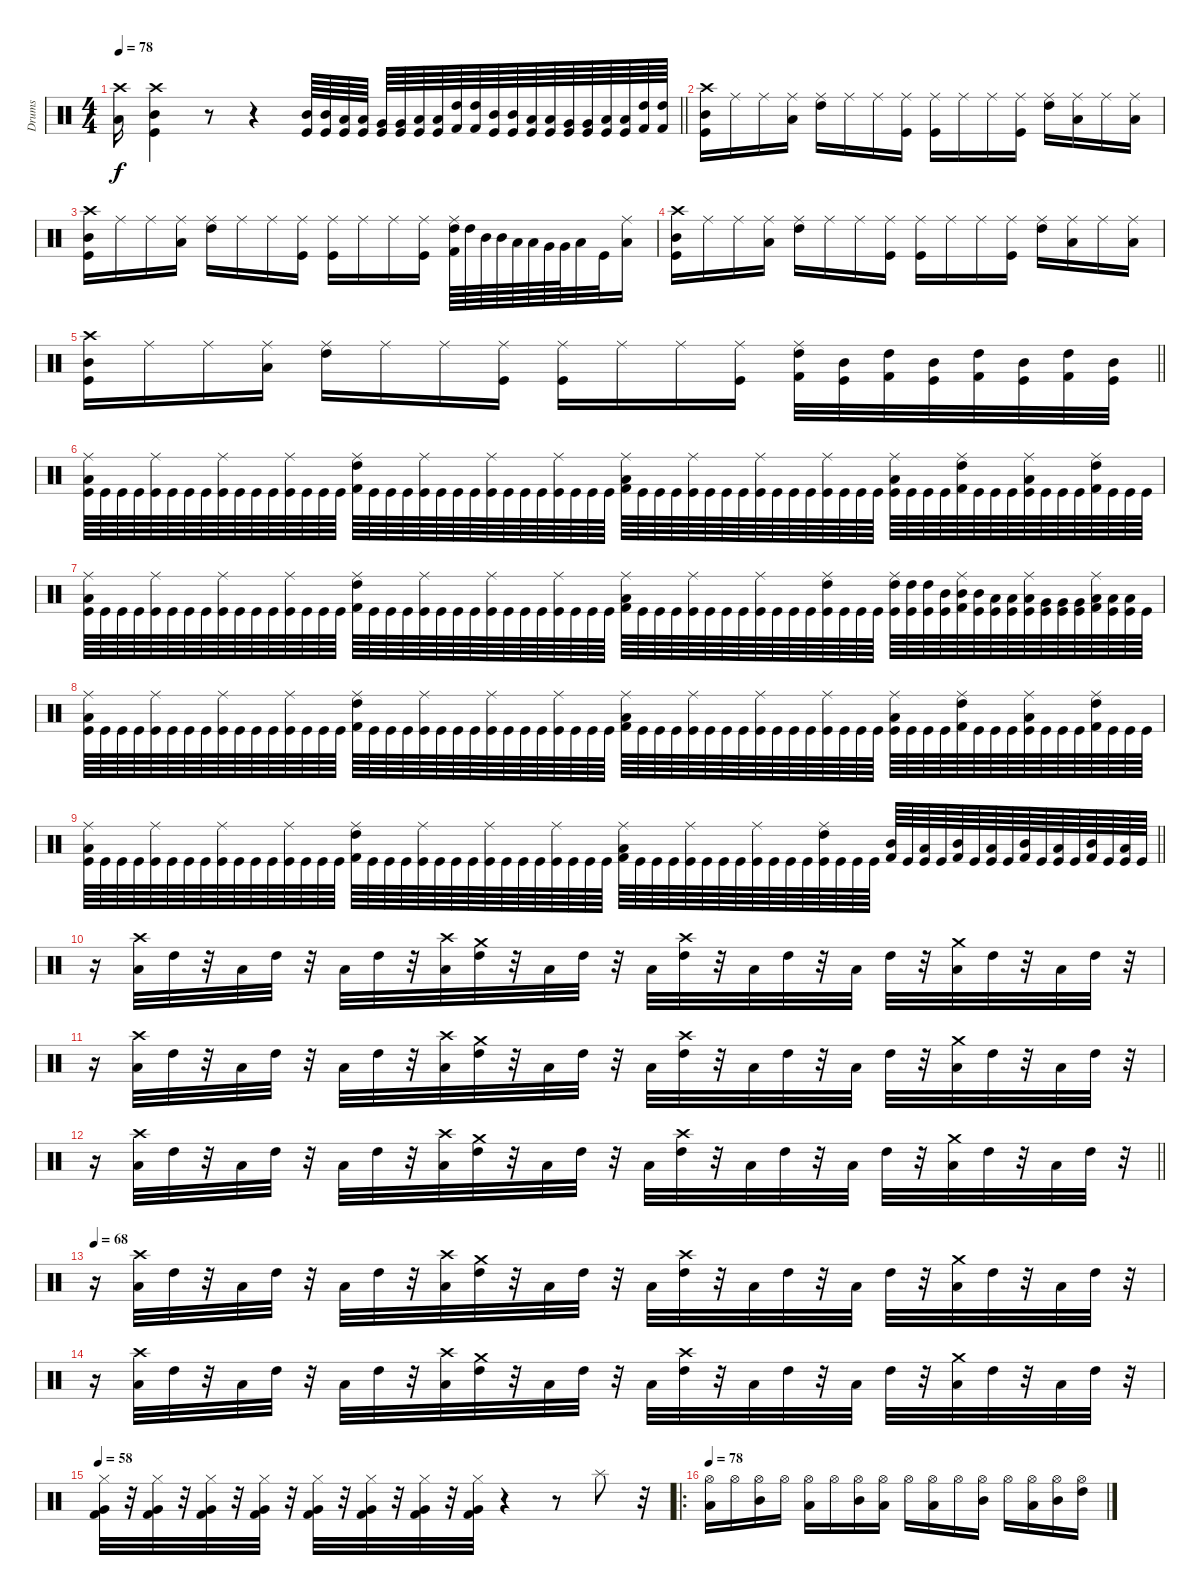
\track ("Drums" "Drums") {instrument percussion}
\staff {score}
\articulation defaults
\ts (4 4)
\tempo 78
\clef neutral
\barLineRight lightlight
\ks c
("Low Tom (hit)" "Crash high (hit)").16{dy f} ("Kick (hit)" "Mid Tom (hit)" "Crash high (hit)").4 r.8 r.4 ("Kick (hit)" "Mid Tom (hit)").64 ("Kick (hit)" "Mid Tom (hit)").64 ("Kick (hit)" "Low Tom (hit)").64 ("Kick (hit)" "Low Tom (hit)").64 ("Kick (hit)" "Very Low Tom (hit)").64 ("Kick (hit)" "Very Low Tom (hit)").64 ("Kick (hit)" "Low Floor Tom (hit)").64 ("Kick (hit)" "Low Floor Tom (hit)").64 ("Kick (hit) 2" "High Tom (hit)").64 ("Kick (hit) 2" "High Tom (hit)").64 ("Kick (hit)" "Mid Tom (hit)").64 ("Kick (hit)" "Mid Tom (hit)").64 ("Kick (hit)" "Low Tom (hit)").64 ("Kick (hit)" "Low Tom (hit)").64 ("Kick (hit)" "Very Low Tom (hit)").64 ("Kick (hit)" "Very Low Tom (hit)").64 ("Kick (hit)" "Low Floor Tom (hit)").64 ("Kick (hit)" "Low Floor Tom (hit)").64 ("Kick (hit) 2" "High Tom (hit)").64 ("Kick (hit) 2" "High Tom (hit)").64 |
("Kick (hit)" "Mid Tom (hit)" "Crash high (hit)").16 "Ride (middle)".16 "Ride (middle)".16 ("Low Floor Tom (hit)" "Ride (middle)").16 ("High Tom (hit)" "Ride (middle)").16 "Ride (middle)".16 "Ride (middle)".16 ("Kick (hit)" "Ride (middle)").16 ("Kick (hit)" "Ride (middle)").16 "Ride (middle)".16 "Ride (middle)".16 ("Kick (hit)" "Ride (middle)").16 ("High Tom (hit)" "Ride (middle)").16 ("Low Floor Tom (hit)" "Ride (middle)").16 "Ride (middle)".16 ("Low Floor Tom (hit)" "Ride (middle)").16 |
("Kick (hit)" "Mid Tom (hit)" "Crash high (hit)").16 "Ride (middle)".16 "Ride (middle)".16 ("Low Floor Tom (hit)" "Ride (middle)").16 ("High Tom (hit)" "Ride (middle)").16 "Ride (middle)".16 "Ride (middle)".16 ("Kick (hit)" "Ride (middle)").16 ("Kick (hit)" "Ride (middle)").16 "Ride (middle)".16 "Ride (middle)".16 ("Kick (hit)" "Ride (middle)").16 ("Kick (hit) 2" "High Tom (hit)" "Ride (middle)").64 "High Tom (hit)".64 "Mid Tom (hit)".64 "Mid Tom (hit)".64 "Low Tom (hit)".64 "Low Tom (hit)".64 "Very Low Tom (hit)".64 "Very Low Tom (hit)".64 "Low Floor Tom (hit)".32 "Kick (hit)".32 ("Low Floor Tom (hit)" "Ride (middle)").16 |
("Kick (hit)" "Mid Tom (hit)" "Crash high (hit)").16 "Ride (middle)".16 "Ride (middle)".16 ("Low Floor Tom (hit)" "Ride (middle)").16 ("High Tom (hit)" "Ride (middle)").16 "Ride (middle)".16 "Ride (middle)".16 ("Kick (hit)" "Ride (middle)").16 ("Kick (hit)" "Ride (middle)").16 "Ride (middle)".16 "Ride (middle)".16 ("Kick (hit)" "Ride (middle)").16 ("High Tom (hit)" "Ride (middle)").16 ("Low Floor Tom (hit)" "Ride (middle)").16 "Ride (middle)".16 ("Low Floor Tom (hit)" "Ride (middle)").16 |
\barLineRight lightlight
("Kick (hit)" "Mid Tom (hit)" "Crash high (hit)").16 "Ride (middle)".16 "Ride (middle)".16 ("Low Floor Tom (hit)" "Ride (middle)").16 ("High Tom (hit)" "Ride (middle)").16 "Ride (middle)".16 "Ride (middle)".16 ("Kick (hit)" "Ride (middle)").16 ("Kick (hit)" "Ride (middle)").16 "Ride (middle)".16 "Ride (middle)".16 ("Kick (hit)" "Ride (middle)").16 ("Kick (hit) 2" "High Tom (hit)" "Ride (middle)").32 ("Kick (hit)" "Mid Tom (hit)").32 ("Kick (hit) 2" "High Tom (hit)").32 ("Kick (hit)" "Mid Tom (hit)").32 ("Kick (hit) 2" "High Tom (hit)").32 ("Kick (hit)" "Mid Tom (hit)").32 ("Kick (hit) 2" "High Tom (hit)").32 ("Kick (hit)" "Mid Tom (hit)").32 |
("Kick (hit)" "Low Floor Tom (hit)" "Ride (middle)").64 "Kick (hit)".64 "Kick (hit)".64 "Kick (hit)".64 ("Kick (hit)" "Ride (middle)").64 "Kick (hit)".64 "Kick (hit)".64 "Kick (hit)".64 ("Kick (hit)" "Ride (middle)").64 "Kick (hit)".64 "Kick (hit)".64 "Kick (hit)".64 ("Kick (hit)" "Ride (middle)").64 "Kick (hit)".64 "Kick (hit)".64 "Kick (hit)".64 ("Kick (hit) 2" "High Tom (hit)" "Ride (middle)").64 "Kick (hit)".64 "Kick (hit)".64 "Kick (hit)".64 ("Kick (hit)" "Ride (middle)").64 "Kick (hit)".64 "Kick (hit)".64 "Kick (hit)".64 ("Kick (hit)" "Ride (middle)").64 "Kick (hit)".64 "Kick (hit)".64 "Kick (hit)".64 ("Kick (hit)" "Ride (middle)").64 "Kick (hit)".64 "Kick (hit)".64 "Kick (hit)".64 ("Kick (hit) 2" "Low Floor Tom (hit)" "Ride (middle)").64 "Kick (hit)".64 "Kick (hit)".64 "Kick (hit)".64 ("Kick (hit)" "Ride (middle)").64 "Kick (hit)".64 "Kick (hit)".64 "Kick (hit)".64 ("Kick (hit)" "Ride (middle)").64 "Kick (hit)".64 "Kick (hit)".64 "Kick (hit)".64 ("Kick (hit)" "Ride (middle)").64 "Kick (hit)".64 "Kick (hit)".64 "Kick (hit)".64 ("Kick (hit)" "Low Floor Tom (hit)" "Ride (middle)").64 "Kick (hit)".64 "Kick (hit)".64 "Kick (hit)".64 ("Kick (hit) 2" "High Tom (hit)" "Ride (middle)").64 "Kick (hit)".64 "Kick (hit)".64 "Kick (hit)".64 ("Kick (hit)" "Low Floor Tom (hit)" "Ride (middle)").64 "Kick (hit)".64 "Kick (hit)".64 "Kick (hit)".64 ("Kick (hit) 2" "High Tom (hit)" "Ride (middle)").64 "Kick (hit)".64 "Kick (hit)".64 "Kick (hit)".64 |
("Kick (hit)" "Low Floor Tom (hit)" "Ride (middle)").64 "Kick (hit)".64 "Kick (hit)".64 "Kick (hit)".64 ("Kick (hit)" "Ride (middle)").64 "Kick (hit)".64 "Kick (hit)".64 "Kick (hit)".64 ("Kick (hit)" "Ride (middle)").64 "Kick (hit)".64 "Kick (hit)".64 "Kick (hit)".64 ("Kick (hit)" "Ride (middle)").64 "Kick (hit)".64 "Kick (hit)".64 "Kick (hit)".64 ("Kick (hit) 2" "High Tom (hit)" "Ride (middle)").64 "Kick (hit)".64 "Kick (hit)".64 "Kick (hit)".64 ("Kick (hit)" "Ride (middle)").64 "Kick (hit)".64 "Kick (hit)".64 "Kick (hit)".64 ("Kick (hit)" "Ride (middle)").64 "Kick (hit)".64 "Kick (hit)".64 "Kick (hit)".64 ("Kick (hit)" "Ride (middle)").64 "Kick (hit)".64 "Kick (hit)".64 "Kick (hit)".64 ("Kick (hit) 2" "Low Floor Tom (hit)" "Ride (middle)").64 "Kick (hit)".64 "Kick (hit)".64 "Kick (hit)".64 ("Kick (hit)" "Ride (middle)").64 "Kick (hit)".64 "Kick (hit)".64 "Kick (hit)".64 ("Kick (hit)" "Ride (middle)").64 "Kick (hit)".64 "Kick (hit)".64 "Kick (hit)".64 ("Kick (hit)" "High Tom (hit)" "Ride (middle)").64 "Kick (hit)".64 "Kick (hit)".64 "Kick (hit)".64 ("Kick (hit)" "High Tom (hit)" "Ride (middle)").64 ("Kick (hit)" "High Tom (hit)").64 ("Kick (hit)" "High Tom (hit)").64 ("Kick (hit)" "Mid Tom (hit)").64 ("Kick (hit) 2" "Mid Tom (hit)" "Ride (middle)").64 ("Kick (hit)" "Mid Tom (hit)").64 ("Kick (hit)" "Low Tom (hit)").64 ("Kick (hit)" "Low Tom (hit)").64 ("Kick (hit)" "Low Tom (hit)" "Ride (middle)").64 ("Kick (hit)" "Very Low Tom (hit)").64 ("Kick (hit)" "Very Low Tom (hit)").64 ("Kick (hit)" "Very Low Tom (hit)").64 ("Kick (hit) 2" "Low Floor Tom (hit)" "Ride (middle)").64 ("Kick (hit)" "Low Floor Tom (hit)").64 ("Kick (hit)" "Low Floor Tom (hit)").64 "Kick (hit)".64 |
("Kick (hit)" "Low Floor Tom (hit)" "Ride (middle)").64 "Kick (hit)".64 "Kick (hit)".64 "Kick (hit)".64 ("Kick (hit)" "Ride (middle)").64 "Kick (hit)".64 "Kick (hit)".64 "Kick (hit)".64 ("Kick (hit)" "Ride (middle)").64 "Kick (hit)".64 "Kick (hit)".64 "Kick (hit)".64 ("Kick (hit)" "Ride (middle)").64 "Kick (hit)".64 "Kick (hit)".64 "Kick (hit)".64 ("Kick (hit) 2" "High Tom (hit)" "Ride (middle)").64 "Kick (hit)".64 "Kick (hit)".64 "Kick (hit)".64 ("Kick (hit)" "Ride (middle)").64 "Kick (hit)".64 "Kick (hit)".64 "Kick (hit)".64 ("Kick (hit)" "Ride (middle)").64 "Kick (hit)".64 "Kick (hit)".64 "Kick (hit)".64 ("Kick (hit)" "Ride (middle)").64 "Kick (hit)".64 "Kick (hit)".64 "Kick (hit)".64 ("Kick (hit) 2" "Low Floor Tom (hit)" "Ride (middle)").64 "Kick (hit)".64 "Kick (hit)".64 "Kick (hit)".64 ("Kick (hit)" "Ride (middle)").64 "Kick (hit)".64 "Kick (hit)".64 "Kick (hit)".64 ("Kick (hit)" "Ride (middle)").64 "Kick (hit)".64 "Kick (hit)".64 "Kick (hit)".64 ("Kick (hit)" "Ride (middle)").64 "Kick (hit)".64 "Kick (hit)".64 "Kick (hit)".64 ("Kick (hit)" "Low Floor Tom (hit)" "Ride (middle)").64 "Kick (hit)".64 "Kick (hit)".64 "Kick (hit)".64 ("Kick (hit) 2" "High Tom (hit)" "Ride (middle)").64 "Kick (hit)".64 "Kick (hit)".64 "Kick (hit)".64 ("Kick (hit)" "Low Floor Tom (hit)" "Ride (middle)").64 "Kick (hit)".64 "Kick (hit)".64 "Kick (hit)".64 ("Kick (hit) 2" "High Tom (hit)" "Ride (middle)").64 "Kick (hit)".64 "Kick (hit)".64 "Kick (hit)".64 |
\barLineRight lightlight
("Kick (hit)" "Low Floor Tom (hit)" "Ride (middle)").64 "Kick (hit)".64 "Kick (hit)".64 "Kick (hit)".64 ("Kick (hit)" "Ride (middle)").64 "Kick (hit)".64 "Kick (hit)".64 "Kick (hit)".64 ("Kick (hit)" "Ride (middle)").64 "Kick (hit)".64 "Kick (hit)".64 "Kick (hit)".64 ("Kick (hit)" "Ride (middle)").64 "Kick (hit)".64 "Kick (hit)".64 "Kick (hit)".64 ("Kick (hit) 2" "High Tom (hit)" "Ride (middle)").64 "Kick (hit)".64 "Kick (hit)".64 "Kick (hit)".64 ("Kick (hit)" "Ride (middle)").64 "Kick (hit)".64 "Kick (hit)".64 "Kick (hit)".64 ("Kick (hit)" "Ride (middle)").64 "Kick (hit)".64 "Kick (hit)".64 "Kick (hit)".64 ("Kick (hit)" "Ride (middle)").64 "Kick (hit)".64 "Kick (hit)".64 "Kick (hit)".64 ("Kick (hit) 2" "Low Floor Tom (hit)" "Ride (middle)").64 "Kick (hit)".64 "Kick (hit)".64 "Kick (hit)".64 ("Kick (hit)" "Ride (middle)").64 "Kick (hit)".64 "Kick (hit)".64 "Kick (hit)".64 ("Kick (hit)" "Ride (middle)").64 "Kick (hit)".64 "Kick (hit)".64 "Kick (hit)".64 ("Kick (hit)" "High Tom (hit)" "Ride (middle)").64 "Kick (hit)".64 "Kick (hit)".64 "Kick (hit)".64 ("Kick (hit) 2" "Mid Tom (hit)").64 "Kick (hit)".64 ("Kick (hit)" "Low Floor Tom (hit)").64 "Kick (hit)".64 ("Kick (hit) 2" "Mid Tom (hit)").64 "Kick (hit)".64 ("Kick (hit)" "Low Floor Tom (hit)").64 "Kick (hit)".64 ("Kick (hit) 2" "Mid Tom (hit)").64 "Kick (hit)".64 ("Kick (hit)" "Low Floor Tom (hit)").64 "Kick (hit)".64 ("Kick (hit) 2" "Mid Tom (hit)").64 "Kick (hit)".64 ("Kick (hit)" "Low Floor Tom (hit)").64 "Kick (hit)".64 |
r.16 ("Low Floor Tom (hit)" "Crash high (hit)").32 "High Tom (hit)".32 r.32 "Low Floor Tom (hit)".32 "High Tom (hit)".32 r.32 "Low Floor Tom (hit)".32 "High Tom (hit)".32 r.32 ("Low Floor Tom (hit)" "Crash high (hit)").32 ("High Tom (hit)" "Crash medium (hit)").32 r.32 "Low Floor Tom (hit)".32 "High Tom (hit)".32 r.32 "Low Floor Tom (hit)".32 ("High Tom (hit)" "Crash high (hit)").32 r.32 "Low Floor Tom (hit)".32 "High Tom (hit)".32 r.32 "Low Floor Tom (hit)".32 "High Tom (hit)".32 r.32 ("Low Floor Tom (hit)" "Crash medium (hit)").32 "High Tom (hit)".32 r.32 "Low Floor Tom (hit)".32 "High Tom (hit)".32 r.32 |
r.16 ("Low Floor Tom (hit)" "Crash high (hit)").32 "High Tom (hit)".32 r.32 "Low Floor Tom (hit)".32 "High Tom (hit)".32 r.32 "Low Floor Tom (hit)".32 "High Tom (hit)".32 r.32 ("Low Floor Tom (hit)" "Crash high (hit)").32 ("High Tom (hit)" "Crash medium (hit)").32 r.32 "Low Floor Tom (hit)".32 "High Tom (hit)".32 r.32 "Low Floor Tom (hit)".32 ("High Tom (hit)" "Crash high (hit)").32 r.32 "Low Floor Tom (hit)".32 "High Tom (hit)".32 r.32 "Low Floor Tom (hit)".32 "High Tom (hit)".32 r.32 ("Low Floor Tom (hit)" "Crash medium (hit)").32 "High Tom (hit)".32 r.32 "Low Floor Tom (hit)".32 "High Tom (hit)".32 r.32 |
\barLineRight lightlight
r.16 ("Low Floor Tom (hit)" "Crash high (hit)").32 "High Tom (hit)".32 r.32 "Low Floor Tom (hit)".32 "High Tom (hit)".32 r.32 "Low Floor Tom (hit)".32 "High Tom (hit)".32 r.32 ("Low Floor Tom (hit)" "Crash high (hit)").32 ("High Tom (hit)" "Crash medium (hit)").32 r.32 "Low Floor Tom (hit)".32 "High Tom (hit)".32 r.32 "Low Floor Tom (hit)".32 ("High Tom (hit)" "Crash high (hit)").32 r.32 "Low Floor Tom (hit)".32 "High Tom (hit)".32 r.32 "Low Floor Tom (hit)".32 "High Tom (hit)".32 r.32 ("Low Floor Tom (hit)" "Crash medium (hit)").32 "High Tom (hit)".32 r.32 "Low Floor Tom (hit)".32 "High Tom (hit)".32 r.32 |
\tempo 68
r.16 ("Low Floor Tom (hit)" "Crash high (hit)").32 "High Tom (hit)".32 r.32 "Low Floor Tom (hit)".32 "High Tom (hit)".32 r.32 "Low Floor Tom (hit)".32 "High Tom (hit)".32 r.32 ("Low Floor Tom (hit)" "Crash high (hit)").32 ("High Tom (hit)" "Crash medium (hit)").32 r.32 "Low Floor Tom (hit)".32 "High Tom (hit)".32 r.32 "Low Floor Tom (hit)".32 ("High Tom (hit)" "Crash high (hit)").32 r.32 "Low Floor Tom (hit)".32 "High Tom (hit)".32 r.32 "Low Floor Tom (hit)".32 "High Tom (hit)".32 r.32 ("Low Floor Tom (hit)" "Crash medium (hit)").32 "High Tom (hit)".32 r.32 "Low Floor Tom (hit)".32 "High Tom (hit)".32 r.32 |
r.16 ("Low Floor Tom (hit)" "Crash high (hit)").32 "High Tom (hit)".32 r.32 "Low Floor Tom (hit)".32 "High Tom (hit)".32 r.32 "Low Floor Tom (hit)".32 "High Tom (hit)".32 r.32 ("Low Floor Tom (hit)" "Crash high (hit)").32 ("High Tom (hit)" "Crash medium (hit)").32 r.32 "Low Floor Tom (hit)".32 "High Tom (hit)".32 r.32 "Low Floor Tom (hit)".32 ("High Tom (hit)" "Crash high (hit)").32 r.32 "Low Floor Tom (hit)".32 "High Tom (hit)".32 r.32 "Low Floor Tom (hit)".32 "High Tom (hit)".32 r.32 ("Low Floor Tom (hit)" "Crash medium (hit)").32 "High Tom (hit)".32 r.32 "Low Floor Tom (hit)".32 "High Tom (hit)".32 r.32 |
\tempo 58
("Kick (hit) 2" "Hi-Hat (closed)" "Very Low Tom (hit)").32 r.32 ("Kick (hit) 2" "Hi-Hat (closed)" "Very Low Tom (hit)").32 r.32 ("Kick (hit) 2" "Hi-Hat (closed)" "Very Low Tom (hit)").32 r.32 ("Kick (hit) 2" "Hi-Hat (closed)" "Very Low Tom (hit)").32 r.32 ("Kick (hit) 2" "Hi-Hat (closed)" "Very Low Tom (hit)").32 r.32 ("Kick (hit) 2" "Hi-Hat (closed)" "Very Low Tom (hit)").32 r.32 ("Kick (hit) 2" "Hi-Hat (closed)" "Very Low Tom (hit)").32 r.32 ("Kick (hit) 2" "Hi-Hat (closed)" "Very Low Tom (hit)").32 r.4 r.8 "Splash (hit)".8 r.32 |
\ro
\tempo 78
("Hi-Hat (open)" "Low Floor Tom (hit)").16 "Hi-Hat (open)".16 ("Hi-Hat (open)" "Mid Tom (hit)").16 "Hi-Hat (open)".16 ("Hi-Hat (open)" "Low Floor Tom (hit)").16 "Hi-Hat (open)".16 ("Hi-Hat (open)" "Mid Tom (hit)").16 ("Hi-Hat (open)" "Low Floor Tom (hit)").16 "Hi-Hat (open)".16 ("Hi-Hat (open)" "Low Floor Tom (hit)").16 "Hi-Hat (open)".16 ("Hi-Hat (open)" "Mid Tom (hit)").16 "Hi-Hat (open)".16 ("Hi-Hat (open)" "Low Floor Tom (hit)").16 ("Hi-Hat (open)" "Mid Tom (hit)").16 ("Hi-Hat (open)" "High Tom (hit)").16
